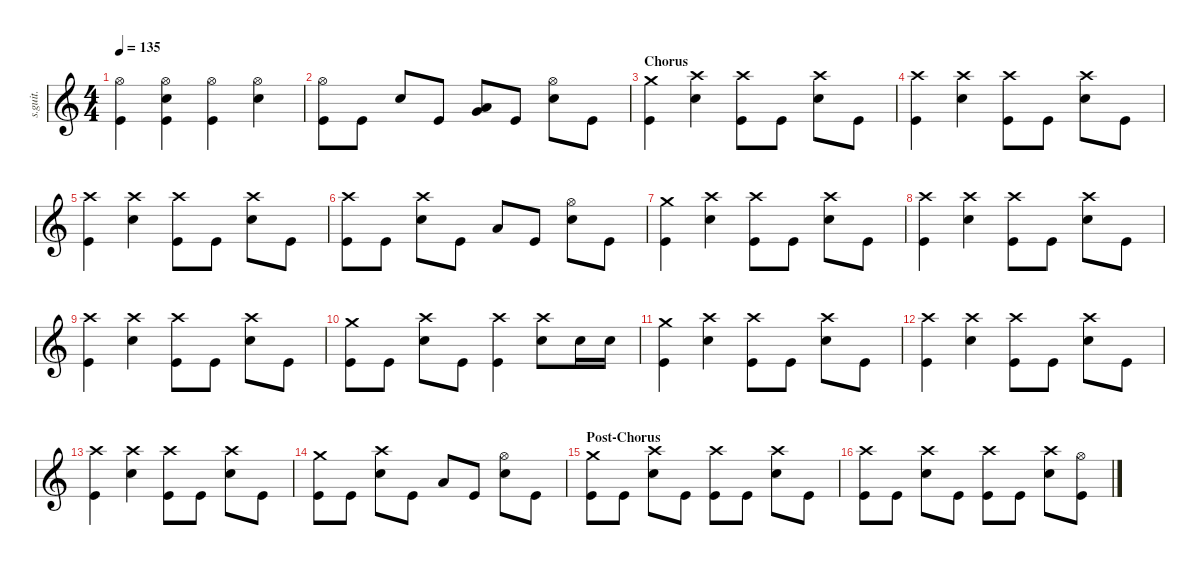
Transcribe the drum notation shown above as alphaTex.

\defaultSystemsLayout 4
\hideDynamics
\bracketExtendMode nobrackets
\track ("Jen Ledger" "s.guit.") {instrument percussion}
\staff {score}
\articulation defaults
\ts (4 4)
\tempo 135
\clef g2
\ks c
("Hi-Hat (open)" "Kick (hit)").4{lyrics (0 "") lyrics (1 "") lyrics (2 "") lyrics (3 "") lyrics (4 "") dy f} ("Hi-Hat (open)" "Snare (hit) 2" "Kick (hit)").4{lyrics (0 "") lyrics (1 "") lyrics (2 "") lyrics (3 "") lyrics (4 "")} ("Hi-Hat (open)" "Kick (hit)").4{lyrics (0 "") lyrics (1 "") lyrics (2 "") lyrics (3 "") lyrics (4 "")} ("Hi-Hat (open)" "Snare (hit) 2").4{lyrics (0 "") lyrics (1 "") lyrics (2 "") lyrics (3 "") lyrics (4 "")} |
("Hi-Hat (open)" "Kick (hit)").8{lyrics (0 "") lyrics (1 "") lyrics (2 "") lyrics (3 "") lyrics (4 "")} "Kick (hit)".8{lyrics (0 "") lyrics (1 "") lyrics (2 "") lyrics (3 "") lyrics (4 "") dy fff} "Snare (hit) 2".8{lyrics (0 "") lyrics (1 "") lyrics (2 "") lyrics (3 "") lyrics (4 "") dy f} "Kick (hit)".8{lyrics (0 "") lyrics (1 "") lyrics (2 "") lyrics (3 "") lyrics (4 "") dy fff} ("Low Tom (hit)" "Very Low Tom (hit)").8{lyrics (0 "") lyrics (1 "") lyrics (2 "") lyrics (3 "") lyrics (4 "")} "Kick (hit)".8{lyrics (0 "") lyrics (1 "") lyrics (2 "") lyrics (3 "") lyrics (4 "")} ("Hi-Hat (open)" "Snare (hit) 2").8{lyrics (0 "") lyrics (1 "") lyrics (2 "") lyrics (3 "") lyrics (4 "") dy f} "Kick (hit)".8{lyrics (0 "") lyrics (1 "") lyrics (2 "") lyrics (3 "") lyrics (4 "") dy fff} |
\section ("" "Chorus")
("Crash medium (hit)" "Kick (hit)").4{lyrics (0 "") lyrics (1 "") lyrics (2 "") lyrics (3 "") lyrics (4 "")} ("Crash high (hit)" "Snare (hit) 2").4{lyrics (0 "") lyrics (1 "") lyrics (2 "") lyrics (3 "") lyrics (4 "") dy f} ("Crash high (hit)" "Kick (hit)").8{lyrics (0 "") lyrics (1 "") lyrics (2 "") lyrics (3 "") lyrics (4 "")} "Kick (hit)".8{lyrics (0 "") lyrics (1 "") lyrics (2 "") lyrics (3 "") lyrics (4 "") dy fff} ("Crash high (hit)" "Snare (hit) 2").8{lyrics (0 "") lyrics (1 "") lyrics (2 "") lyrics (3 "") lyrics (4 "") dy f} "Kick (hit)".8{lyrics (0 "") lyrics (1 "") lyrics (2 "") lyrics (3 "") lyrics (4 "") dy fff} |
("Crash high (hit)" "Kick (hit)").4{lyrics (0 "") lyrics (1 "") lyrics (2 "") lyrics (3 "") lyrics (4 "")} ("Crash high (hit)" "Snare (hit) 2").4{lyrics (0 "") lyrics (1 "") lyrics (2 "") lyrics (3 "") lyrics (4 "") dy f} ("Crash high (hit)" "Kick (hit)").8{lyrics (0 "") lyrics (1 "") lyrics (2 "") lyrics (3 "") lyrics (4 "")} "Kick (hit)".8{lyrics (0 "") lyrics (1 "") lyrics (2 "") lyrics (3 "") lyrics (4 "") dy fff} ("Crash high (hit)" "Snare (hit) 2").8{lyrics (0 "") lyrics (1 "") lyrics (2 "") lyrics (3 "") lyrics (4 "") dy f} "Kick (hit)".8{lyrics (0 "") lyrics (1 "") lyrics (2 "") lyrics (3 "") lyrics (4 "") dy fff} |
("Crash high (hit)" "Kick (hit)").4{lyrics (0 "") lyrics (1 "") lyrics (2 "") lyrics (3 "") lyrics (4 "")} ("Crash high (hit)" "Snare (hit) 2").4{lyrics (0 "") lyrics (1 "") lyrics (2 "") lyrics (3 "") lyrics (4 "") dy f} ("Crash high (hit)" "Kick (hit)").8{lyrics (0 "") lyrics (1 "") lyrics (2 "") lyrics (3 "") lyrics (4 "")} "Kick (hit)".8{lyrics (0 "") lyrics (1 "") lyrics (2 "") lyrics (3 "") lyrics (4 "") dy fff} ("Crash high (hit)" "Snare (hit) 2").8{lyrics (0 "") lyrics (1 "") lyrics (2 "") lyrics (3 "") lyrics (4 "") dy f} "Kick (hit)".8{lyrics (0 "") lyrics (1 "") lyrics (2 "") lyrics (3 "") lyrics (4 "") dy fff} |
("Crash high (hit)" "Kick (hit)").8{lyrics (0 "") lyrics (1 "") lyrics (2 "") lyrics (3 "") lyrics (4 "")} "Kick (hit)".8{lyrics (0 "") lyrics (1 "") lyrics (2 "") lyrics (3 "") lyrics (4 "")} ("Crash high (hit)" "Snare (hit) 2").8{lyrics (0 "") lyrics (1 "") lyrics (2 "") lyrics (3 "") lyrics (4 "") dy f} "Kick (hit)".8{lyrics (0 "") lyrics (1 "") lyrics (2 "") lyrics (3 "") lyrics (4 "") dy fff} "Low Tom (hit)".8{lyrics (0 "") lyrics (1 "") lyrics (2 "") lyrics (3 "") lyrics (4 "")} "Kick (hit)".8{lyrics (0 "") lyrics (1 "") lyrics (2 "") lyrics (3 "") lyrics (4 "")} ("Hi-Hat (open)" "Snare (hit) 2").8{lyrics (0 "") lyrics (1 "") lyrics (2 "") lyrics (3 "") lyrics (4 "") dy f} "Kick (hit)".8{lyrics (0 "") lyrics (1 "") lyrics (2 "") lyrics (3 "") lyrics (4 "") dy fff} |
("Crash medium (hit)" "Kick (hit)").4{lyrics (0 "") lyrics (1 "") lyrics (2 "") lyrics (3 "") lyrics (4 "")} ("Crash high (hit)" "Snare (hit) 2").4{lyrics (0 "") lyrics (1 "") lyrics (2 "") lyrics (3 "") lyrics (4 "") dy f} ("Crash high (hit)" "Kick (hit)").8{lyrics (0 "") lyrics (1 "") lyrics (2 "") lyrics (3 "") lyrics (4 "")} "Kick (hit)".8{lyrics (0 "") lyrics (1 "") lyrics (2 "") lyrics (3 "") lyrics (4 "") dy fff} ("Crash high (hit)" "Snare (hit) 2").8{lyrics (0 "") lyrics (1 "") lyrics (2 "") lyrics (3 "") lyrics (4 "") dy f} "Kick (hit)".8{lyrics (0 "") lyrics (1 "") lyrics (2 "") lyrics (3 "") lyrics (4 "") dy fff} |
("Crash high (hit)" "Kick (hit)").4{lyrics (0 "") lyrics (1 "") lyrics (2 "") lyrics (3 "") lyrics (4 "")} ("Crash high (hit)" "Snare (hit) 2").4{lyrics (0 "") lyrics (1 "") lyrics (2 "") lyrics (3 "") lyrics (4 "") dy f} ("Crash high (hit)" "Kick (hit)").8{lyrics (0 "") lyrics (1 "") lyrics (2 "") lyrics (3 "") lyrics (4 "")} "Kick (hit)".8{lyrics (0 "") lyrics (1 "") lyrics (2 "") lyrics (3 "") lyrics (4 "") dy fff} ("Crash high (hit)" "Snare (hit) 2").8{lyrics (0 "") lyrics (1 "") lyrics (2 "") lyrics (3 "") lyrics (4 "") dy f} "Kick (hit)".8{lyrics (0 "") lyrics (1 "") lyrics (2 "") lyrics (3 "") lyrics (4 "") dy fff} |
("Crash high (hit)" "Kick (hit)").4{lyrics (0 "") lyrics (1 "") lyrics (2 "") lyrics (3 "") lyrics (4 "")} ("Crash high (hit)" "Snare (hit) 2").4{lyrics (0 "") lyrics (1 "") lyrics (2 "") lyrics (3 "") lyrics (4 "") dy f} ("Crash high (hit)" "Kick (hit)").8{lyrics (0 "") lyrics (1 "") lyrics (2 "") lyrics (3 "") lyrics (4 "")} "Kick (hit)".8{lyrics (0 "") lyrics (1 "") lyrics (2 "") lyrics (3 "") lyrics (4 "") dy fff} ("Crash high (hit)" "Snare (hit) 2").8{lyrics (0 "") lyrics (1 "") lyrics (2 "") lyrics (3 "") lyrics (4 "") dy f} "Kick (hit)".8{lyrics (0 "") lyrics (1 "") lyrics (2 "") lyrics (3 "") lyrics (4 "") dy fff} |
("Crash medium (hit)" "Kick (hit)").8{lyrics (0 "") lyrics (1 "") lyrics (2 "") lyrics (3 "") lyrics (4 "")} "Kick (hit)".8{lyrics (0 "") lyrics (1 "") lyrics (2 "") lyrics (3 "") lyrics (4 "")} ("Crash high (hit)" "Snare (hit) 2").8{lyrics (0 "") lyrics (1 "") lyrics (2 "") lyrics (3 "") lyrics (4 "") dy f} "Kick (hit)".8{lyrics (0 "") lyrics (1 "") lyrics (2 "") lyrics (3 "") lyrics (4 "") dy fff} ("Crash high (hit)" "Kick (hit)").4{lyrics (0 "") lyrics (1 "") lyrics (2 "") lyrics (3 "") lyrics (4 "")} ("Crash high (hit)" "Snare (hit) 2").8{lyrics (0 "") lyrics (1 "") lyrics (2 "") lyrics (3 "") lyrics (4 "") dy f} "Snare (hit) 2".16{lyrics (0 "") lyrics (1 "") lyrics (2 "") lyrics (3 "") lyrics (4 "")} "Snare (hit) 2".16{lyrics (0 "") lyrics (1 "") lyrics (2 "") lyrics (3 "") lyrics (4 "")} |
("Crash medium (hit)" "Kick (hit)").4{lyrics (0 "") lyrics (1 "") lyrics (2 "") lyrics (3 "") lyrics (4 "")} ("Crash high (hit)" "Snare (hit) 2").4{lyrics (0 "") lyrics (1 "") lyrics (2 "") lyrics (3 "") lyrics (4 "")} ("Crash high (hit)" "Kick (hit)").8{lyrics (0 "") lyrics (1 "") lyrics (2 "") lyrics (3 "") lyrics (4 "")} "Kick (hit)".8{lyrics (0 "") lyrics (1 "") lyrics (2 "") lyrics (3 "") lyrics (4 "") dy fff} ("Crash high (hit)" "Snare (hit) 2").8{lyrics (0 "") lyrics (1 "") lyrics (2 "") lyrics (3 "") lyrics (4 "") dy f} "Kick (hit)".8{lyrics (0 "") lyrics (1 "") lyrics (2 "") lyrics (3 "") lyrics (4 "") dy fff} |
("Crash high (hit)" "Kick (hit)").4{lyrics (0 "") lyrics (1 "") lyrics (2 "") lyrics (3 "") lyrics (4 "")} ("Crash high (hit)" "Snare (hit) 2").4{lyrics (0 "") lyrics (1 "") lyrics (2 "") lyrics (3 "") lyrics (4 "") dy f} ("Crash high (hit)" "Kick (hit)").8{lyrics (0 "") lyrics (1 "") lyrics (2 "") lyrics (3 "") lyrics (4 "")} "Kick (hit)".8{lyrics (0 "") lyrics (1 "") lyrics (2 "") lyrics (3 "") lyrics (4 "") dy fff} ("Crash high (hit)" "Snare (hit) 2").8{lyrics (0 "") lyrics (1 "") lyrics (2 "") lyrics (3 "") lyrics (4 "") dy f} "Kick (hit)".8{lyrics (0 "") lyrics (1 "") lyrics (2 "") lyrics (3 "") lyrics (4 "") dy fff} |
("Crash high (hit)" "Kick (hit)").4{lyrics (0 "") lyrics (1 "") lyrics (2 "") lyrics (3 "") lyrics (4 "")} ("Crash high (hit)" "Snare (hit) 2").4{lyrics (0 "") lyrics (1 "") lyrics (2 "") lyrics (3 "") lyrics (4 "") dy f} ("Crash high (hit)" "Kick (hit)").8{lyrics (0 "") lyrics (1 "") lyrics (2 "") lyrics (3 "") lyrics (4 "")} "Kick (hit)".8{lyrics (0 "") lyrics (1 "") lyrics (2 "") lyrics (3 "") lyrics (4 "") dy fff} ("Crash high (hit)" "Snare (hit) 2").8{lyrics (0 "") lyrics (1 "") lyrics (2 "") lyrics (3 "") lyrics (4 "") dy f} "Kick (hit)".8{lyrics (0 "") lyrics (1 "") lyrics (2 "") lyrics (3 "") lyrics (4 "") dy fff} |
("Crash medium (hit)" "Kick (hit)").8{lyrics (0 "") lyrics (1 "") lyrics (2 "") lyrics (3 "") lyrics (4 "")} "Kick (hit)".8{lyrics (0 "") lyrics (1 "") lyrics (2 "") lyrics (3 "") lyrics (4 "")} ("Crash high (hit)" "Snare (hit) 2").8{lyrics (0 "") lyrics (1 "") lyrics (2 "") lyrics (3 "") lyrics (4 "") dy f} "Kick (hit)".8{lyrics (0 "") lyrics (1 "") lyrics (2 "") lyrics (3 "") lyrics (4 "") dy fff} "Low Tom (hit)".8{lyrics (0 "") lyrics (1 "") lyrics (2 "") lyrics (3 "") lyrics (4 "")} "Kick (hit)".8{lyrics (0 "") lyrics (1 "") lyrics (2 "") lyrics (3 "") lyrics (4 "")} ("Hi-Hat (open)" "Snare (hit) 2").8{lyrics (0 "") lyrics (1 "") lyrics (2 "") lyrics (3 "") lyrics (4 "") dy f} "Kick (hit)".8{lyrics (0 "") lyrics (1 "") lyrics (2 "") lyrics (3 "") lyrics (4 "") dy fff} |
\section ("" "Post-Chorus")
("Crash medium (hit)" "Kick (hit)").8{lyrics (0 "") lyrics (1 "") lyrics (2 "") lyrics (3 "") lyrics (4 "")} "Kick (hit)".8{lyrics (0 "") lyrics (1 "") lyrics (2 "") lyrics (3 "") lyrics (4 "")} ("Crash high (hit)" "Snare (hit) 2").8{lyrics (0 "") lyrics (1 "") lyrics (2 "") lyrics (3 "") lyrics (4 "") dy f} "Kick (hit)".8{lyrics (0 "") lyrics (1 "") lyrics (2 "") lyrics (3 "") lyrics (4 "") dy fff} ("Crash high (hit)" "Kick (hit)").8{lyrics (0 "") lyrics (1 "") lyrics (2 "") lyrics (3 "") lyrics (4 "")} "Kick (hit)".8{lyrics (0 "") lyrics (1 "") lyrics (2 "") lyrics (3 "") lyrics (4 "")} ("Crash high (hit)" "Snare (hit) 2").8{lyrics (0 "") lyrics (1 "") lyrics (2 "") lyrics (3 "") lyrics (4 "") dy f} "Kick (hit)".8{lyrics (0 "") lyrics (1 "") lyrics (2 "") lyrics (3 "") lyrics (4 "") dy fff} |
("Crash high (hit)" "Kick (hit)").8{lyrics (0 "") lyrics (1 "") lyrics (2 "") lyrics (3 "") lyrics (4 "")} "Kick (hit)".8{lyrics (0 "") lyrics (1 "") lyrics (2 "") lyrics (3 "") lyrics (4 "")} ("Crash high (hit)" "Snare (hit) 2").8{lyrics (0 "") lyrics (1 "") lyrics (2 "") lyrics (3 "") lyrics (4 "") dy f} "Kick (hit)".8{lyrics (0 "") lyrics (1 "") lyrics (2 "") lyrics (3 "") lyrics (4 "") dy fff} ("Crash high (hit)" "Kick (hit)").8{lyrics (0 "") lyrics (1 "") lyrics (2 "") lyrics (3 "") lyrics (4 "")} "Kick (hit)".8{lyrics (0 "") lyrics (1 "") lyrics (2 "") lyrics (3 "") lyrics (4 "")} ("Crash high (hit)" "Snare (hit) 2").8{lyrics (0 "") lyrics (1 "") lyrics (2 "") lyrics (3 "") lyrics (4 "") dy f} ("Hi-Hat (open)" "Kick (hit)").8{lyrics (0 "") lyrics (1 "") lyrics (2 "") lyrics (3 "") lyrics (4 "")}
